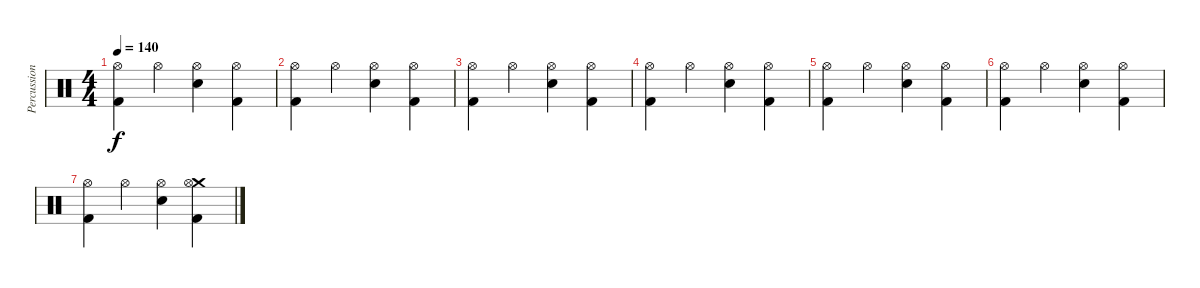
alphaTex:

\track ("Percussion" "Percussion") {instrument percussion}
\staff {score}
\articulation defaults
\ts (4 4)
\tempo 140
\clef neutral
\ks c
("Hi-Hat (open)" "Kick (hit) 2").4{dy f} "Hi-Hat (open)".4 ("Hi-Hat (open)" "Snare (hit) 2").4 ("Hi-Hat (open)" "Kick (hit) 2").4 |
("Hi-Hat (open)" "Kick (hit) 2").4 "Hi-Hat (open)".4 ("Hi-Hat (open)" "Snare (hit) 2").4 ("Hi-Hat (open)" "Kick (hit) 2").4 |
("Hi-Hat (open)" "Kick (hit) 2").4 "Hi-Hat (open)".4 ("Hi-Hat (open)" "Snare (hit) 2").4 ("Hi-Hat (open)" "Kick (hit) 2").4 |
("Hi-Hat (open)" "Kick (hit) 2").4 "Hi-Hat (open)".4 ("Hi-Hat (open)" "Snare (hit) 2").4 ("Hi-Hat (open)" "Kick (hit) 2").4 |
("Hi-Hat (open)" "Kick (hit) 2").4 "Hi-Hat (open)".4 ("Hi-Hat (open)" "Snare (hit) 2").4 ("Hi-Hat (open)" "Kick (hit) 2").4 |
("Hi-Hat (open)" "Kick (hit) 2").4 "Hi-Hat (open)".4 ("Hi-Hat (open)" "Snare (hit) 2").4 ("Hi-Hat (open)" "Kick (hit) 2").4 |
("Hi-Hat (open)" "Kick (hit) 2").4 "Hi-Hat (open)".4 ("Hi-Hat (open)" "Snare (hit) 2").4 ("Crash medium (hit)" "Hi-Hat (open)" "Kick (hit) 2").4
